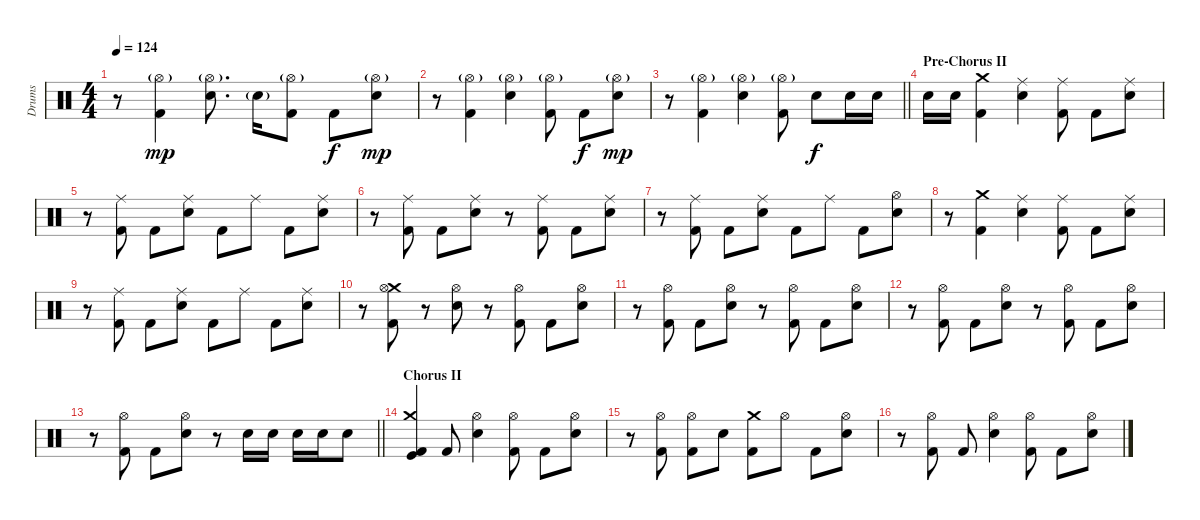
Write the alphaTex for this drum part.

\track ("Drums" "Drums") {instrument percussion}
\staff {score}
\articulation defaults
\ts (4 4)
\tempo 124
\clef neutral
\ks c
r.8{dy mp} ("Kick (hit) 2" "Hi-Hat (open)"{g}).4 ("Electric Snare (hit)" "Hi-Hat (open)"{g}).8{d} "Electric Snare (hit)"{g}.16 ("Kick (hit) 2" "Hi-Hat (open)"{g}).8 "Kick (hit) 2".8{dy f} ("Electric Snare (hit)" "Hi-Hat (open)"{g}).8{dy mp} |
r.8 ("Kick (hit) 2" "Hi-Hat (open)"{g}).4 ("Electric Snare (hit)" "Hi-Hat (open)"{g}).4 ("Kick (hit) 2" "Hi-Hat (open)"{g}).8 "Kick (hit) 2".8{dy f} ("Electric Snare (hit)" "Hi-Hat (open)"{g}).8{dy mp} |
\barLineRight lightlight
r.8 ("Kick (hit) 2" "Hi-Hat (open)"{g}).4 ("Electric Snare (hit)" "Hi-Hat (open)"{g}).4 ("Kick (hit) 2" "Hi-Hat (open)"{g}).8 "Electric Snare (hit)".8{dy f} "Electric Snare (hit)".16 "Electric Snare (hit)".16 |
\section ("" "Pre-Chorus II")
"Electric Snare (hit)".16 "Electric Snare (hit)".16 ("Crash medium (hit)" "Kick (hit) 2").4 ("Electric Snare (hit)" "Ride (middle)").4 ("Kick (hit) 2" "Ride (middle)").8 "Kick (hit) 2".8 ("Electric Snare (hit)" "Ride (middle)").8 |
r.8 ("Kick (hit) 2" "Ride (middle)").8 "Kick (hit) 2".8 ("Electric Snare (hit)" "Ride (middle)").8 "Kick (hit) 2".8 "Ride (middle)".8 "Kick (hit) 2".8 ("Electric Snare (hit)" "Ride (middle)").8 |
r.8 ("Kick (hit) 2" "Ride (middle)").8 "Kick (hit) 2".8 ("Electric Snare (hit)" "Ride (middle)").8 r.8 ("Kick (hit) 2" "Ride (middle)").8 "Kick (hit) 2".8 ("Electric Snare (hit)" "Ride (middle)").8 |
r.8 ("Kick (hit) 2" "Ride (middle)").8 "Kick (hit) 2".8 ("Electric Snare (hit)" "Ride (middle)").8 "Kick (hit) 2".8 "Ride (middle)".8 "Kick (hit) 2".8 ("Hi-Hat (open)" "Electric Snare (hit)").8 |
r.8 ("Crash medium (hit)" "Kick (hit) 2").4 ("Electric Snare (hit)" "Ride (middle)").4 ("Kick (hit) 2" "Ride (middle)").8 "Kick (hit) 2".8 ("Electric Snare (hit)" "Ride (middle)").8 |
r.8 ("Kick (hit) 2" "Ride (middle)").8 "Kick (hit) 2".8 ("Electric Snare (hit)" "Ride (middle)").8 "Kick (hit) 2".8 "Ride (middle)".8 "Kick (hit) 2".8 ("Electric Snare (hit)" "Ride (middle)").8 |
r.8 ("Crash medium (hit)" "Kick (hit) 2" "Hi-Hat (open)").8 r.8 ("Electric Snare (hit)" "Hi-Hat (open)").8 r.8 ("Kick (hit) 2" "Hi-Hat (open)").8 "Kick (hit) 2".8 ("Electric Snare (hit)" "Hi-Hat (open)").8 |
r.8 ("Kick (hit) 2" "Hi-Hat (open)").8 "Kick (hit) 2".8 ("Electric Snare (hit)" "Hi-Hat (open)").8 r.8 ("Kick (hit) 2" "Hi-Hat (open)").8 "Kick (hit) 2".8 ("Electric Snare (hit)" "Hi-Hat (open)").8 |
r.8 ("Kick (hit) 2" "Hi-Hat (open)").8 "Kick (hit) 2".8 ("Electric Snare (hit)" "Hi-Hat (open)").8 r.8 ("Kick (hit) 2" "Hi-Hat (open)").8 "Kick (hit) 2".8 ("Electric Snare (hit)" "Hi-Hat (open)").8 |
\barLineRight lightlight
r.8 ("Kick (hit) 2" "Hi-Hat (open)").8 "Kick (hit) 2".8 ("Electric Snare (hit)" "Hi-Hat (open)").8 r.8 "Electric Snare (hit)".16 "Electric Snare (hit)".16 "Electric Snare (hit)".16 "Electric Snare (hit)".16 "Electric Snare (hit)".8 |
\section ("" "Chorus II")
("Crash medium (hit)" "Kick (hit)" "Kick (hit) 2").4 "Kick (hit) 2".8 ("Electric Snare (hit)" "Hi-Hat (open)").4 ("Hi-Hat (open)" "Kick (hit) 2").8 "Kick (hit) 2".8 ("Electric Snare (hit)" "Hi-Hat (open)").8 |
r.8 ("Hi-Hat (open)" "Kick (hit) 2").8 ("Hi-Hat (open)" "Kick (hit) 2").8 "Electric Snare (hit)".8 ("Crash medium (hit)" "Kick (hit) 2").8 "Hi-Hat (open)".8 "Kick (hit) 2".8 ("Electric Snare (hit)" "Hi-Hat (open)").8 |
r.8 ("Hi-Hat (open)" "Kick (hit) 2").8 "Kick (hit) 2".8 ("Electric Snare (hit)" "Hi-Hat (open)").4 ("Hi-Hat (open)" "Kick (hit) 2").8 "Kick (hit) 2".8 ("Electric Snare (hit)" "Hi-Hat (open)").8
